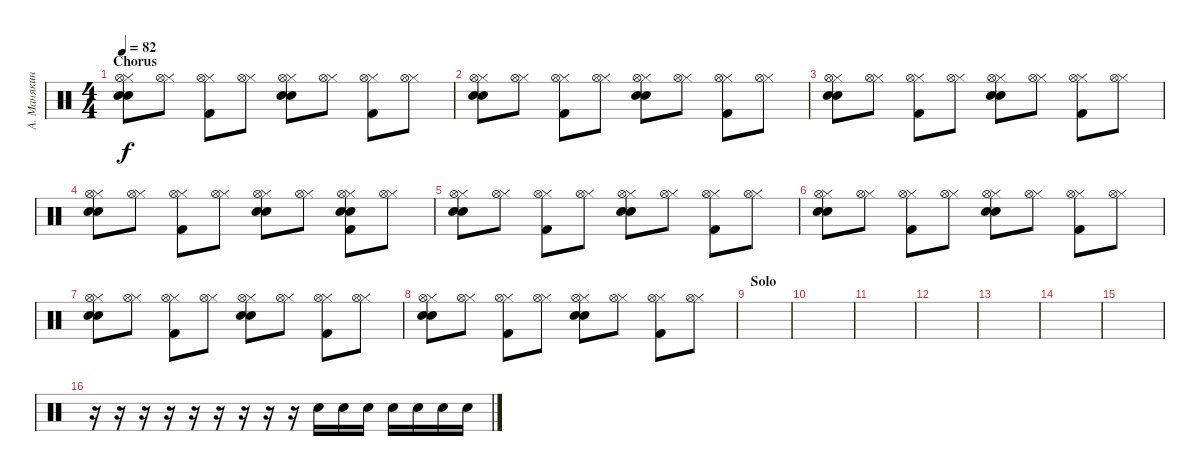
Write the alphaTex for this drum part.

\track ("А. Манякин" "А. Манякин") {instrument percussion}
\staff {score}
\articulation defaults
\ts (4 4)
\section ("" "Chorus")
\tempo 82
\clef neutral
\ks c
("Electric Snare (hit)" "Snare (hit) 2" "Hi-Hat (closed)" "Hi-Hat (open)").8{dy f} ("Hi-Hat (closed)" "Hi-Hat (open)").8 ("Hi-Hat (closed)" "Hi-Hat (open)" "Kick (hit) 2").8 ("Hi-Hat (closed)" "Hi-Hat (open)").8 ("Electric Snare (hit)" "Snare (hit) 2" "Hi-Hat (closed)" "Hi-Hat (open)").8 ("Hi-Hat (closed)" "Hi-Hat (open)").8 ("Hi-Hat (closed)" "Hi-Hat (open)" "Kick (hit) 2").8 ("Hi-Hat (closed)" "Hi-Hat (open)").8 |
("Electric Snare (hit)" "Snare (hit) 2" "Hi-Hat (closed)" "Hi-Hat (open)").8 ("Hi-Hat (closed)" "Hi-Hat (open)").8 ("Hi-Hat (closed)" "Hi-Hat (open)" "Kick (hit) 2").8 ("Hi-Hat (closed)" "Hi-Hat (open)").8 ("Electric Snare (hit)" "Snare (hit) 2" "Hi-Hat (closed)" "Hi-Hat (open)").8 ("Hi-Hat (closed)" "Hi-Hat (open)").8 ("Hi-Hat (closed)" "Hi-Hat (open)" "Kick (hit) 2").8 ("Hi-Hat (closed)" "Hi-Hat (open)").8 |
("Electric Snare (hit)" "Snare (hit) 2" "Hi-Hat (closed)" "Hi-Hat (open)").8 ("Hi-Hat (closed)" "Hi-Hat (open)").8 ("Hi-Hat (closed)" "Hi-Hat (open)" "Kick (hit) 2").8 ("Hi-Hat (closed)" "Hi-Hat (open)").8 ("Electric Snare (hit)" "Snare (hit) 2" "Hi-Hat (closed)" "Hi-Hat (open)").8 ("Hi-Hat (closed)" "Hi-Hat (open)").8 ("Hi-Hat (closed)" "Hi-Hat (open)" "Kick (hit) 2").8 ("Hi-Hat (closed)" "Hi-Hat (open)").8 |
("Electric Snare (hit)" "Snare (hit) 2" "Hi-Hat (closed)" "Hi-Hat (open)").8 ("Hi-Hat (closed)" "Hi-Hat (open)").8 ("Hi-Hat (closed)" "Hi-Hat (open)" "Kick (hit) 2").8 ("Hi-Hat (closed)" "Hi-Hat (open)").8 ("Electric Snare (hit)" "Snare (hit) 2" "Hi-Hat (closed)" "Hi-Hat (open)").8 ("Hi-Hat (closed)" "Hi-Hat (open)").8 ("Electric Snare (hit)" "Snare (hit) 2" "Hi-Hat (closed)" "Hi-Hat (open)" "Kick (hit) 2").8 ("Hi-Hat (closed)" "Hi-Hat (open)").8 |
("Electric Snare (hit)" "Snare (hit) 2" "Hi-Hat (closed)" "Hi-Hat (open)").8 ("Hi-Hat (closed)" "Hi-Hat (open)").8 ("Hi-Hat (closed)" "Hi-Hat (open)" "Kick (hit) 2").8 ("Hi-Hat (closed)" "Hi-Hat (open)").8 ("Electric Snare (hit)" "Snare (hit) 2" "Hi-Hat (closed)" "Hi-Hat (open)").8 ("Hi-Hat (closed)" "Hi-Hat (open)").8 ("Hi-Hat (closed)" "Hi-Hat (open)" "Kick (hit) 2").8 ("Hi-Hat (closed)" "Hi-Hat (open)").8 |
("Electric Snare (hit)" "Snare (hit) 2" "Hi-Hat (closed)" "Hi-Hat (open)").8 ("Hi-Hat (closed)" "Hi-Hat (open)").8 ("Hi-Hat (closed)" "Hi-Hat (open)" "Kick (hit) 2").8 ("Hi-Hat (closed)" "Hi-Hat (open)").8 ("Electric Snare (hit)" "Snare (hit) 2" "Hi-Hat (closed)" "Hi-Hat (open)").8 ("Hi-Hat (closed)" "Hi-Hat (open)").8 ("Hi-Hat (closed)" "Hi-Hat (open)" "Kick (hit) 2").8 ("Hi-Hat (closed)" "Hi-Hat (open)").8 |
("Electric Snare (hit)" "Snare (hit) 2" "Hi-Hat (closed)" "Hi-Hat (open)").8 ("Hi-Hat (closed)" "Hi-Hat (open)").8 ("Hi-Hat (closed)" "Hi-Hat (open)" "Kick (hit) 2").8 ("Hi-Hat (closed)" "Hi-Hat (open)").8 ("Electric Snare (hit)" "Snare (hit) 2" "Hi-Hat (closed)" "Hi-Hat (open)").8 ("Hi-Hat (closed)" "Hi-Hat (open)").8 ("Hi-Hat (closed)" "Hi-Hat (open)" "Kick (hit) 2").8 ("Hi-Hat (closed)" "Hi-Hat (open)").8 |
("Electric Snare (hit)" "Snare (hit) 2" "Hi-Hat (closed)" "Hi-Hat (open)").8 ("Hi-Hat (closed)" "Hi-Hat (open)").8 ("Hi-Hat (closed)" "Hi-Hat (open)" "Kick (hit) 2").8 ("Hi-Hat (closed)" "Hi-Hat (open)").8 ("Electric Snare (hit)" "Snare (hit) 2" "Hi-Hat (closed)" "Hi-Hat (open)").8 ("Hi-Hat (closed)" "Hi-Hat (open)").8 ("Hi-Hat (closed)" "Hi-Hat (open)" "Kick (hit) 2").8 ("Hi-Hat (closed)" "Hi-Hat (open)").8 |
\section ("" "Solo")
|
|
|
|
|
|
|
r.16 r.16 r.16 r.16 r.16 r.16 r.16 r.16 r.16 "Snare (hit) 2".16 "Snare (hit) 2".16 "Snare (hit) 2".16 "Snare (hit) 2".16 "Snare (hit) 2".16 "Snare (hit) 2".16 "Snare (hit) 2".16
